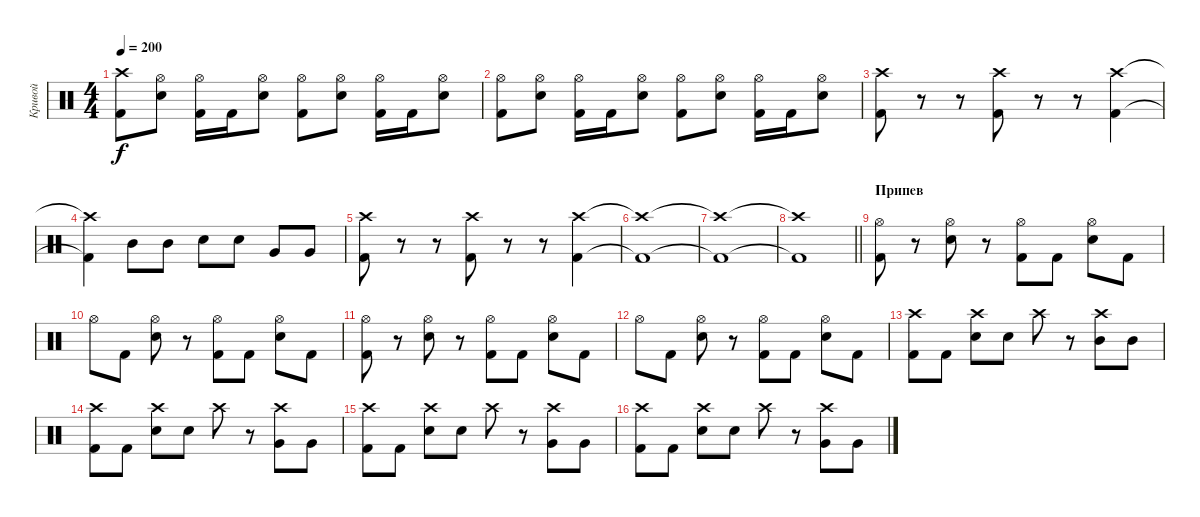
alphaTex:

\track ("Кривой" "Кривой") {instrument percussion}
\staff {score}
\articulation defaults
\ts (4 4)
\tempo 200
\clef neutral
\ks c
("Kick (hit) 2" "Crash high (hit)").8{dy f} ("Electric Snare (hit)" "Hi-Hat (open)").8 ("Kick (hit) 2" "Hi-Hat (open)").16 "Kick (hit) 2".16 ("Electric Snare (hit)" "Hi-Hat (open)").8 ("Kick (hit) 2" "Hi-Hat (open)").8 ("Electric Snare (hit)" "Hi-Hat (open)").8 ("Kick (hit) 2" "Hi-Hat (open)").16 "Kick (hit) 2".16 ("Electric Snare (hit)" "Hi-Hat (open)").8 |
("Kick (hit) 2" "Hi-Hat (open)").8 ("Electric Snare (hit)" "Hi-Hat (open)").8 ("Kick (hit) 2" "Hi-Hat (open)").16 "Kick (hit) 2".16 ("Electric Snare (hit)" "Hi-Hat (open)").8 ("Kick (hit) 2" "Hi-Hat (open)").8 ("Electric Snare (hit)" "Hi-Hat (open)").8 ("Kick (hit) 2" "Hi-Hat (open)").16 "Kick (hit) 2".16 ("Electric Snare (hit)" "Hi-Hat (open)").8 |
("Kick (hit) 2" "Crash high (hit)").8 r.8 r.8 ("Kick (hit) 2" "Crash high (hit)").8 r.8 r.8 ("Kick (hit) 2" "Crash high (hit)").4 |
("Kick (hit) 2"{t} "Crash high (hit)"{t}).4 "Mid Tom (hit)".8 "Mid Tom (hit)".8 "Electric Snare (hit)".8 "Electric Snare (hit)".8 "Very Low Tom (hit)".8 "Very Low Tom (hit)".8 |
("Kick (hit) 2" "Crash high (hit)").8 r.8 r.8 ("Kick (hit) 2" "Crash high (hit)").8 r.8 r.8 ("Kick (hit) 2" "Crash high (hit)").4 |
("Kick (hit) 2"{t} "Crash high (hit)"{t}).1 |
("Kick (hit) 2"{t} "Crash high (hit)"{t}).1 |
\barLineRight lightlight
("Kick (hit) 2"{t} "Crash high (hit)"{t}).1 |
\section ("" "Припев")
("Kick (hit) 2" "Hi-Hat (open)").8 r.8 ("Electric Snare (hit)" "Hi-Hat (open)").8 r.8 ("Kick (hit) 2" "Hi-Hat (open)").8 "Kick (hit) 2".8 ("Electric Snare (hit)" "Hi-Hat (open)").8 "Kick (hit) 2".8 |
"Hi-Hat (open)".8 "Kick (hit) 2".8 ("Electric Snare (hit)" "Hi-Hat (open)").8 r.8 ("Kick (hit) 2" "Hi-Hat (open)").8 "Kick (hit) 2".8 ("Electric Snare (hit)" "Hi-Hat (open)").8 "Kick (hit) 2".8 |
("Kick (hit) 2" "Hi-Hat (open)").8 r.8 ("Electric Snare (hit)" "Hi-Hat (open)").8 r.8 ("Kick (hit) 2" "Hi-Hat (open)").8 "Kick (hit) 2".8 ("Electric Snare (hit)" "Hi-Hat (open)").8 "Kick (hit) 2".8 |
"Hi-Hat (open)".8 "Kick (hit) 2".8 ("Electric Snare (hit)" "Hi-Hat (open)").8 r.8 ("Kick (hit) 2" "Hi-Hat (open)").8 "Kick (hit) 2".8 ("Electric Snare (hit)" "Hi-Hat (open)").8 "Kick (hit) 2".8 |
("Kick (hit) 2" "Crash high (hit)").8 "Kick (hit) 2".8 ("Electric Snare (hit)" "Crash high (hit)").8 "Electric Snare (hit)".8 "Crash high (hit)".8 r.8 ("Mid Tom (hit)" "Crash high (hit)").8 "Mid Tom (hit)".8 |
("Kick (hit) 2" "Crash high (hit)").8 "Kick (hit) 2".8 ("Electric Snare (hit)" "Crash high (hit)").8 "Electric Snare (hit)".8 "Crash high (hit)".8 r.8 ("Very Low Tom (hit)" "Crash high (hit)").8 "Very Low Tom (hit)".8 |
("Kick (hit) 2" "Crash high (hit)").8 "Kick (hit) 2".8 ("Electric Snare (hit)" "Crash high (hit)").8 "Electric Snare (hit)".8 "Crash high (hit)".8 r.8 ("Very Low Tom (hit)" "Crash high (hit)").8 "Very Low Tom (hit)".8 |
("Kick (hit) 2" "Crash high (hit)").8 "Kick (hit) 2".8 ("Electric Snare (hit)" "Crash high (hit)").8 "Electric Snare (hit)".8 "Crash high (hit)".8 r.8 ("Very Low Tom (hit)" "Crash high (hit)").8 "Very Low Tom (hit)".8
